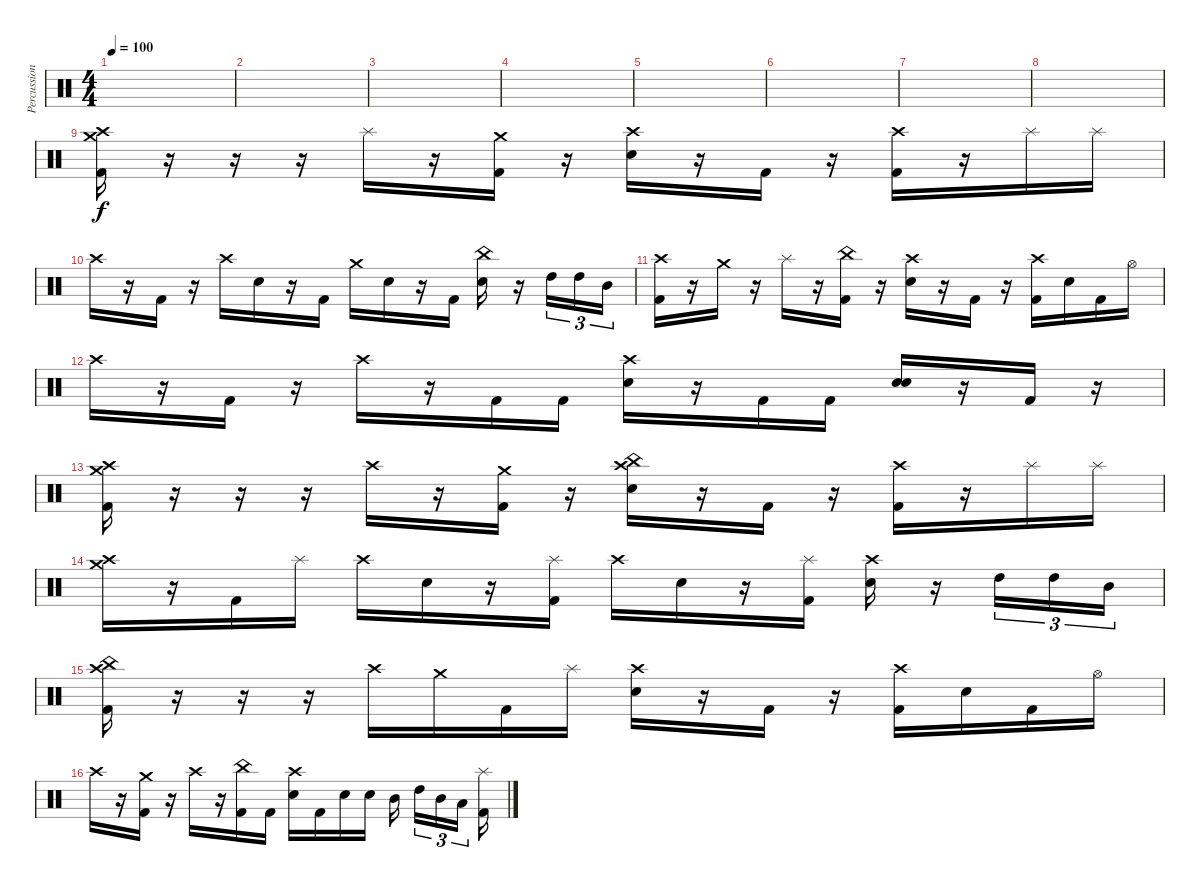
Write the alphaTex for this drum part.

\track ("Percussion" "Percussion") {instrument percussion}
\staff {score}
\articulation defaults
\ts (4 4)
\tempo 100
\clef neutral
\ks c
|
|
|
|
|
|
|
|
("Crash medium (hit)" "Crash high (hit)" "Kick (hit) 2").16{volume 13} r.16 r.16 r.16 "Splash (hit)".16 r.16 ("Crash medium (hit)" "Kick (hit) 2").16 r.16 ("Crash high (hit)" "Electric Snare (hit)").16 r.16 "Kick (hit) 2".16 r.16 ("Crash high (hit)" "Kick (hit) 2").16 r.16 "Splash (hit)".16 "Splash (hit)".16 |
"Crash high (hit)".16 r.16 "Kick (hit) 2".16 r.16 "Crash high (hit)".16 "Electric Snare (hit)".16 r.16 "Kick (hit) 2".16 "Crash medium (hit)".16 "Electric Snare (hit)".16 r.16 "Kick (hit) 2".16 ("China (hit)" "Electric Snare (hit)").16 r.16 "High Tom (hit)".16{tu (3 2)} "High Tom (hit)".16{tu (3 2)} "Mid Tom (hit)".16{tu (3 2)} |
("Crash high (hit)" "Kick (hit) 2").16 r.16 "Crash medium (hit)".16 r.16 "Splash (hit)".16 r.16 ("China (hit)" "Kick (hit) 2").16 r.16 ("Crash high (hit)" "Electric Snare (hit)").16 r.16 "Kick (hit) 2".16 r.16 ("Crash high (hit)" "Kick (hit) 2").16 "Electric Snare (hit)".16 "Kick (hit) 2".16 "Hi-Hat (open)".16 |
"Crash high (hit)".16 r.16 "Kick (hit) 2".16 r.16 "Crash high (hit)".16 r.16 "Kick (hit) 2".16 "Kick (hit) 2".16 ("Crash high (hit)" "Electric Snare (hit)").16 r.16 "Kick (hit) 2".16 "Kick (hit) 2".16 ("Electric Snare (hit)" "Electric Snare (hit)").16 r.16 "Kick (hit) 2".16 r.16 |
("Crash high (hit)" "Crash medium (hit)" "Kick (hit) 2").16 r.16 r.16 r.16 "Crash high (hit)".16 r.16 ("Crash medium (hit)" "Kick (hit) 2").16 r.16 ("China (hit)" "Crash high (hit)" "Electric Snare (hit)").16 r.16 "Kick (hit) 2".16 r.16 ("Crash high (hit)" "Kick (hit) 2").16 r.16 "Splash (hit)".16 "Splash (hit)".16 |
("Crash medium (hit)" "Crash high (hit)").16 r.16 "Kick (hit) 2".16 "Splash (hit)".16 "Crash high (hit)".16 "Electric Snare (hit)".16 r.16 ("Splash (hit)" "Kick (hit) 2").16 "Crash high (hit)".16 "Electric Snare (hit)".16 r.16 ("Splash (hit)" "Kick (hit) 2").16 ("Crash high (hit)" "Electric Snare (hit)").16 r.16 "High Tom (hit)".16{tu (3 2)} "High Tom (hit)".16{tu (3 2)} "Mid Tom (hit)".16{tu (3 2)} |
("China (hit)" "Crash high (hit)" "Kick (hit) 2").16 r.16 r.16 r.16 "Crash high (hit)".16 "Crash medium (hit)".16 "Kick (hit) 2".16 "Splash (hit)".16 ("Crash high (hit)" "Electric Snare (hit)").16 r.16 "Kick (hit) 2".16 r.16 ("Crash high (hit)" "Kick (hit) 2").16 "Electric Snare (hit)".16 "Kick (hit) 2".16 "Hi-Hat (open)".16 |
"Crash high (hit)".16 r.16 ("Crash medium (hit)" "Kick (hit) 2").16 r.16 "Crash high (hit)".16 r.16 ("China (hit)" "Kick (hit) 2").16 "Kick (hit) 2".16 ("Crash high (hit)" "Electric Snare (hit)").16 "Kick (hit) 2".16 "Electric Snare (hit)".16 "Electric Snare (hit)".16 "Mid Tom (hit)".16 "High Tom (hit)".16{tu (3 2)} "Mid Tom (hit)".16{tu (3 2)} "Low Tom (hit)".16{tu (3 2)} ("Splash (hit)" "Kick (hit) 2").16
